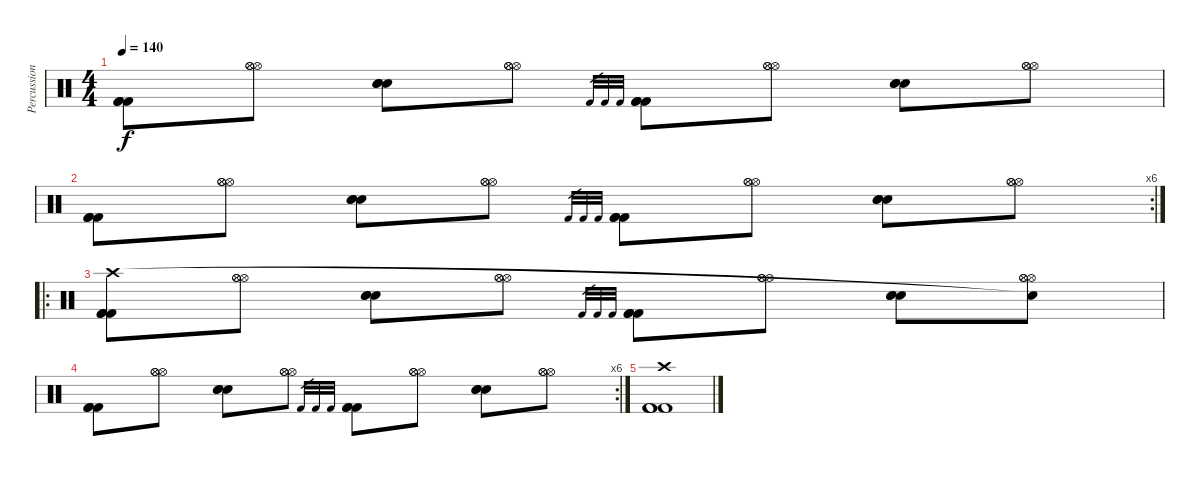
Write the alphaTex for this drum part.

\track ("Percussion" "Percussion") {instrument percussion}
\staff {score}
\articulation defaults
\ts (4 4)
\tempo 140
\clef neutral
\ks c
("Kick (hit) 2" "Kick (hit) 2" "Kick (hit) 2").8{dy f} ("Hi-Hat (open)" "Hi-Hat (open)" "Hi-Hat (open)").8 ("Electric Snare (hit)" "Electric Snare (hit)" "Electric Snare (hit)").8 ("Hi-Hat (open)" "Hi-Hat (open)" "Hi-Hat (open)").8 "Kick (hit) 2".32{gr} "Kick (hit) 2".32{gr} "Kick (hit) 2".32{gr} ("Kick (hit) 2" "Kick (hit) 2" "Kick (hit) 2").8 ("Hi-Hat (open)" "Hi-Hat (open)" "Hi-Hat (open)").8 ("Electric Snare (hit)" "Electric Snare (hit)" "Electric Snare (hit)").8 ("Hi-Hat (open)" "Hi-Hat (open)" "Hi-Hat (open)").8 |
\rc 6
("Kick (hit) 2" "Kick (hit) 2" "Kick (hit) 2").8 ("Hi-Hat (open)" "Hi-Hat (open)" "Hi-Hat (open)").8 ("Electric Snare (hit)" "Electric Snare (hit)" "Electric Snare (hit)").8 ("Hi-Hat (open)" "Hi-Hat (open)" "Hi-Hat (open)").8 "Kick (hit) 2".32{gr} "Kick (hit) 2".32{gr} "Kick (hit) 2".32{gr} ("Kick (hit) 2" "Kick (hit) 2" "Kick (hit) 2").8 ("Hi-Hat (open)" "Hi-Hat (open)" "Hi-Hat (open)").8 ("Electric Snare (hit)" "Electric Snare (hit)" "Electric Snare (hit)").8 ("Hi-Hat (open)" "Hi-Hat (open)" "Hi-Hat (open)").8 |
\ro
("Kick (hit) 2" "Kick (hit) 2" "Kick (hit) 2" "Crash high (hit)").8 ("Hi-Hat (open)" "Hi-Hat (open)" "Hi-Hat (open)").8 ("Electric Snare (hit)" "Electric Snare (hit)" "Electric Snare (hit)").8 ("Hi-Hat (open)" "Hi-Hat (open)" "Hi-Hat (open)").8 "Kick (hit) 2".32{gr} "Kick (hit) 2".32{gr} "Kick (hit) 2".32{gr} ("Kick (hit) 2" "Kick (hit) 2" "Kick (hit) 2").8 ("Hi-Hat (open)" "Hi-Hat (open)" "Hi-Hat (open)").8 ("Electric Snare (hit)" "Electric Snare (hit)" "Electric Snare (hit)").8 ("Hi-Hat (open)" "Hi-Hat (open)" "Hi-Hat (open)" "Snare (hit)"{t}).8 |
\rc 6
("Kick (hit) 2" "Kick (hit) 2" "Kick (hit) 2").8 ("Hi-Hat (open)" "Hi-Hat (open)" "Hi-Hat (open)").8 ("Electric Snare (hit)" "Electric Snare (hit)" "Electric Snare (hit)").8 ("Hi-Hat (open)" "Hi-Hat (open)" "Hi-Hat (open)").8 "Kick (hit) 2".32{gr} "Kick (hit) 2".32{gr} "Kick (hit) 2".32{gr} ("Kick (hit) 2" "Kick (hit) 2" "Kick (hit) 2").8 ("Hi-Hat (open)" "Hi-Hat (open)" "Hi-Hat (open)").8 ("Electric Snare (hit)" "Electric Snare (hit)" "Electric Snare (hit)").8 ("Hi-Hat (open)" "Hi-Hat (open)" "Hi-Hat (open)").8 |
("Kick (hit) 2" "Kick (hit) 2" "Kick (hit) 2" "Crash high (hit)").1
